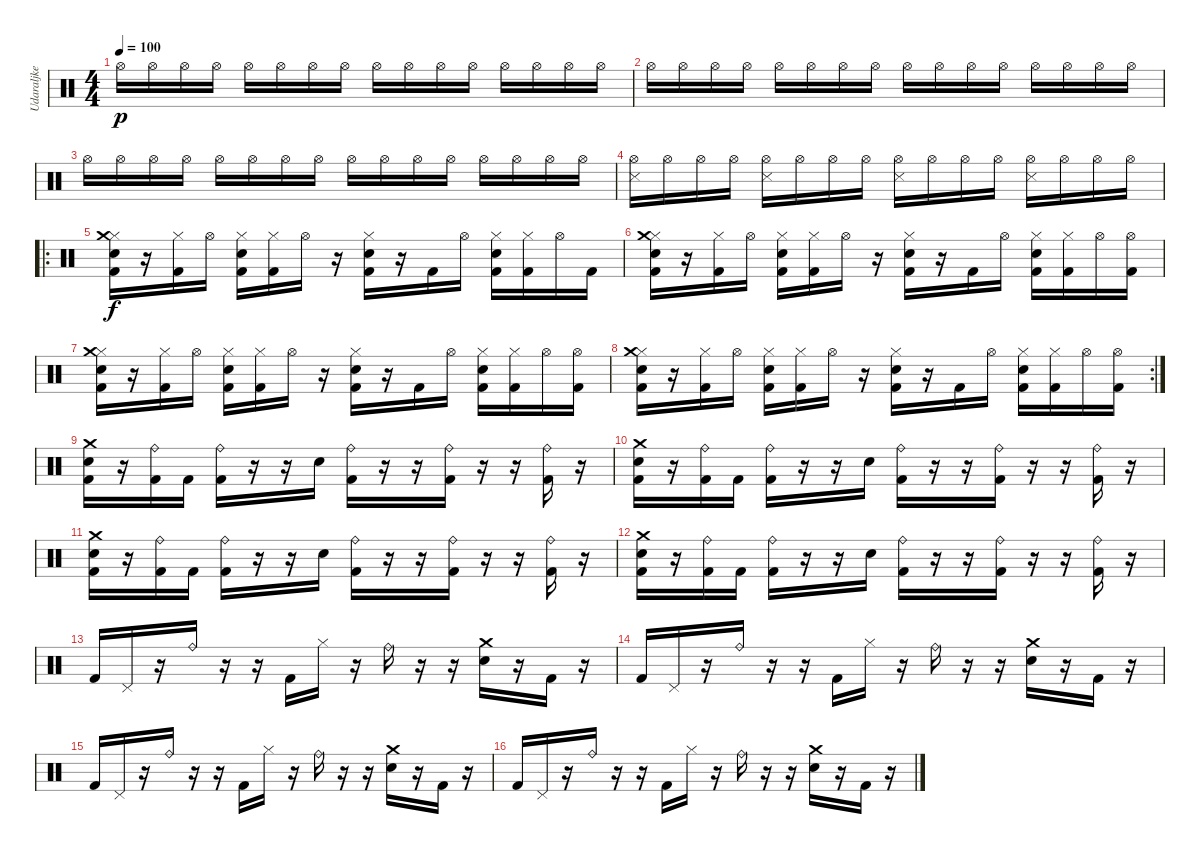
\track ("Udaraljke" "Udaraljke") {instrument percussion}
\staff {score}
\articulation defaults
\ts (4 4)
\tempo 100
\clef neutral
\ks c "Hi-Hat (open)".16{dy p} "Hi-Hat (open)".16 "Hi-Hat (open)".16 "Hi-Hat (open)".16 "Hi-Hat (open)".16 "Hi-Hat (open)".16 "Hi-Hat (open)".16 "Hi-Hat (open)".16 "Hi-Hat (open)".16 "Hi-Hat (open)".16 "Hi-Hat (open)".16 "Hi-Hat (open)".16 "Hi-Hat (open)".16 "Hi-Hat (open)".16 "Hi-Hat (open)".16 "Hi-Hat (open)".16
|
"Hi-Hat (open)".16 "Hi-Hat (open)".16 "Hi-Hat (open)".16 "Hi-Hat (open)".16 "Hi-Hat (open)".16 "Hi-Hat (open)".16 "Hi-Hat (open)".16 "Hi-Hat (open)".16 "Hi-Hat (open)".16 "Hi-Hat (open)".16 "Hi-Hat (open)".16 "Hi-Hat (open)".16 "Hi-Hat (open)".16 "Hi-Hat (open)".16 "Hi-Hat (open)".16 "Hi-Hat (open)".16 |
"Hi-Hat (open)".16 "Hi-Hat (open)".16 "Hi-Hat (open)".16 "Hi-Hat (open)".16 "Hi-Hat (open)".16 "Hi-Hat (open)".16 "Hi-Hat (open)".16 "Hi-Hat (open)".16 "Hi-Hat (open)".16 "Hi-Hat (open)".16 "Hi-Hat (open)".16 "Hi-Hat (open)".16 "Hi-Hat (open)".16 "Hi-Hat (open)".16 "Hi-Hat (open)".16 "Hi-Hat (open)".16 |
("Snare (side stick) 3" "Hi-Hat (open)").16 "Hi-Hat (open)".16 "Hi-Hat (open)".16 "Hi-Hat (open)".16 ("Snare (side stick) 3" "Hi-Hat (open)").16 "Hi-Hat (open)".16 "Hi-Hat (open)".16 "Hi-Hat (open)".16 ("Snare (side stick) 3" "Hi-Hat (open)").16 "Hi-Hat (open)".16 "Hi-Hat (open)".16 "Hi-Hat (open)".16 ("Snare (side stick) 3" "Hi-Hat (open)").16 "Hi-Hat (open)".16 "Hi-Hat (open)".16 "Hi-Hat (open)".16 |
\ro
("Kick (hit) 2" "Snare (hit) 2" "Hi-Hat (closed)" "Crash medium (hit)").16{dy f} r.16 ("Kick (hit) 2" "Hi-Hat (closed)").16 "Hi-Hat (open)".16 ("Kick (hit) 2" "Snare (hit) 2" "Hi-Hat (closed)").16 ("Kick (hit) 2" "Hi-Hat (closed)").16 "Hi-Hat (open)".16 r.16 ("Kick (hit) 2" "Snare (hit) 2" "Hi-Hat (closed)").16 r.16 "Kick (hit) 2".16 "Hi-Hat (open)".16 ("Kick (hit) 2" "Snare (hit) 2" "Hi-Hat (closed)").16 ("Kick (hit) 2" "Hi-Hat (closed)").16 "Hi-Hat (open)".16 "Kick (hit) 2".16 |
("Kick (hit) 2" "Snare (hit) 2" "Hi-Hat (closed)" "Crash medium (hit)").16 r.16 ("Kick (hit) 2" "Hi-Hat (closed)").16 "Hi-Hat (open)".16 ("Kick (hit) 2" "Snare (hit) 2" "Hi-Hat (closed)").16 ("Kick (hit) 2" "Hi-Hat (closed)").16 "Hi-Hat (open)".16 r.16 ("Kick (hit) 2" "Snare (hit) 2" "Hi-Hat (closed)").16 r.16 "Kick (hit) 2".16 "Hi-Hat (open)".16 ("Kick (hit) 2" "Snare (hit) 2" "Hi-Hat (closed)").16 ("Kick (hit) 2" "Hi-Hat (closed)").16 "Hi-Hat (open)".16 ("Kick (hit) 2" "Hi-Hat (open)").16 |
("Kick (hit) 2" "Snare (hit) 2" "Hi-Hat (closed)" "Crash medium (hit)").16 r.16 ("Kick (hit) 2" "Hi-Hat (closed)").16 "Hi-Hat (open)".16 ("Kick (hit) 2" "Snare (hit) 2" "Hi-Hat (closed)").16 ("Kick (hit) 2" "Hi-Hat (closed)").16 "Hi-Hat (open)".16 r.16 ("Kick (hit) 2" "Snare (hit) 2" "Hi-Hat (closed)").16 r.16 "Kick (hit) 2".16 "Hi-Hat (open)".16 ("Kick (hit) 2" "Snare (hit) 2" "Hi-Hat (closed)").16 ("Kick (hit) 2" "Hi-Hat (closed)").16 "Hi-Hat (open)".16 ("Kick (hit) 2" "Hi-Hat (open)").16 |
\rc 2
("Kick (hit) 2" "Snare (hit) 2" "Hi-Hat (closed)" "Crash medium (hit)").16 r.16 ("Kick (hit) 2" "Hi-Hat (closed)").16 "Hi-Hat (open)".16 ("Kick (hit) 2" "Snare (hit) 2" "Hi-Hat (closed)").16 ("Kick (hit) 2" "Hi-Hat (closed)").16 "Hi-Hat (open)".16 r.16 ("Kick (hit) 2" "Snare (hit) 2" "Hi-Hat (closed)").16 r.16 "Kick (hit) 2".16 "Hi-Hat (open)".16 ("Kick (hit) 2" "Snare (hit) 2" "Hi-Hat (closed)").16 ("Kick (hit) 2" "Hi-Hat (closed)").16 "Hi-Hat (open)".16 ("Kick (hit) 2" "Hi-Hat (open)").16 |
("Snare (hit) 2" "Crash medium (hit)" "Kick (hit) 2").16 r.16 ("Ride (bell)" "Kick (hit) 2").16 "Kick (hit) 2".16 ("Ride (bell)" "Kick (hit) 2").16 r.16 r.16 "Snare (hit) 2".16 ("Ride (bell)" "Kick (hit) 2").16 r.16 r.16 ("Ride (bell)" "Kick (hit) 2").16 r.16 r.16 ("Ride (bell)" "Kick (hit) 2").16 r.16 |
("Snare (hit) 2" "Crash medium (hit)" "Kick (hit) 2").16 r.16 ("Ride (bell)" "Kick (hit) 2").16 "Kick (hit) 2".16 ("Ride (bell)" "Kick (hit) 2").16 r.16 r.16 "Snare (hit) 2".16 ("Ride (bell)" "Kick (hit) 2").16 r.16 r.16 ("Ride (bell)" "Kick (hit) 2").16 r.16 r.16 ("Ride (bell)" "Kick (hit) 2").16 r.16 |
("Snare (hit) 2" "Crash medium (hit)" "Kick (hit) 2").16 r.16 ("Ride (bell)" "Kick (hit) 2").16 "Kick (hit) 2".16 ("Ride (bell)" "Kick (hit) 2").16 r.16 r.16 "Snare (hit) 2".16 ("Ride (bell)" "Kick (hit) 2").16 r.16 r.16 ("Ride (bell)" "Kick (hit) 2").16 r.16 r.16 ("Ride (bell)" "Kick (hit) 2").16 r.16 |
("Snare (hit) 2" "Crash medium (hit)" "Kick (hit) 2").16 r.16 ("Ride (bell)" "Kick (hit) 2").16 "Kick (hit) 2".16 ("Ride (bell)" "Kick (hit) 2").16 r.16 r.16 "Snare (hit) 2".16 ("Ride (bell)" "Kick (hit) 2").16 r.16 r.16 ("Ride (bell)" "Kick (hit) 2").16 r.16 r.16 ("Ride (bell)" "Kick (hit) 2").16 r.16 |
"Kick (hit) 2".16 "Pedal Hi-Hat (hit)".16 r.16 "Ride (bell)".16 r.16 r.16 "Kick (hit) 2".16 "Hi-Hat (closed)".16 r.16 "Ride (bell)".16 r.16 r.16 ("Snare (hit) 2" "Crash medium (hit)").16 r.16 "Kick (hit) 2".16 r.16 |
"Kick (hit) 2".16 "Pedal Hi-Hat (hit)".16 r.16 "Ride (bell)".16 r.16 r.16 "Kick (hit) 2".16 "Hi-Hat (closed)".16 r.16 "Ride (bell)".16 r.16 r.16 ("Snare (hit) 2" "Crash medium (hit)").16 r.16 "Kick (hit) 2".16 r.16 |
"Kick (hit) 2".16 "Pedal Hi-Hat (hit)".16 r.16 "Ride (bell)".16 r.16 r.16 "Kick (hit) 2".16 "Hi-Hat (closed)".16 r.16 "Ride (bell)".16 r.16 r.16 ("Snare (hit) 2" "Crash medium (hit)").16 r.16 "Kick (hit) 2".16 r.16 |
"Kick (hit) 2".16 "Pedal Hi-Hat (hit)".16 r.16 "Ride (bell)".16 r.16 r.16 "Kick (hit) 2".16 "Hi-Hat (closed)".16 r.16 "Ride (bell)".16 r.16 r.16 ("Snare (hit) 2" "Crash medium (hit)").16 r.16 "Kick (hit) 2".16 r.16
